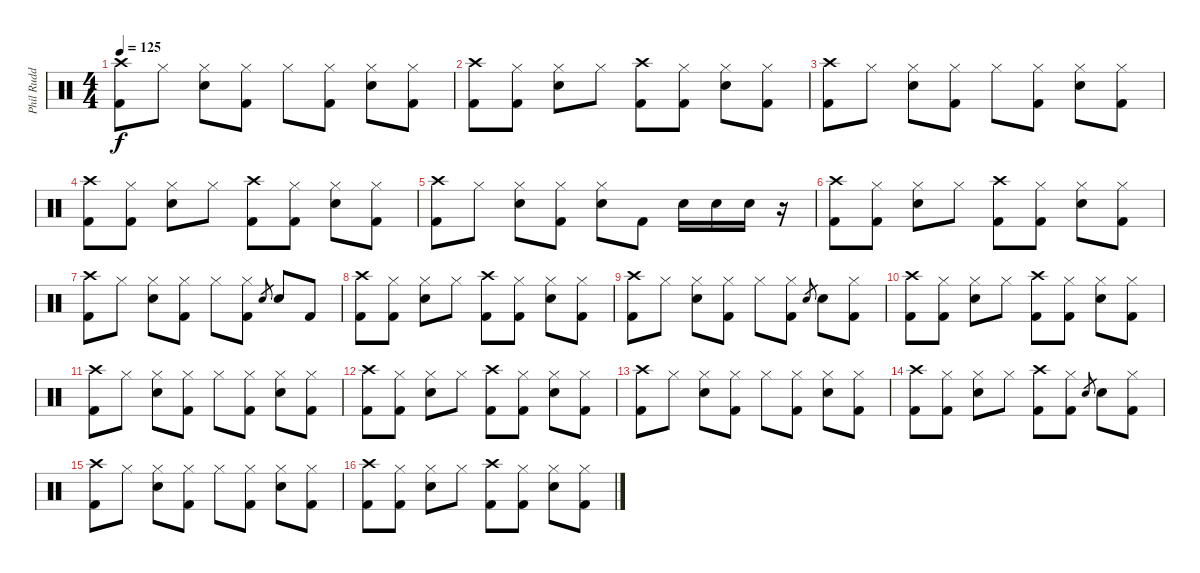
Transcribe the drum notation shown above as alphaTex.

\track ("Phil Rudd" "Phil Rudd") {instrument percussion}
\staff {score}
\articulation defaults
\ts (4 4)
\tempo 125
\clef neutral
\ks c
("Crash high (hit)" "Kick (hit) 2").8{dy f} "Hi-Hat (closed)".8 ("Hi-Hat (closed)" "Snare (hit) 2").8 ("Hi-Hat (closed)" "Kick (hit) 2").8 "Hi-Hat (closed)".8 ("Hi-Hat (closed)" "Kick (hit) 2").8 ("Hi-Hat (closed)" "Snare (hit) 2").8 ("Hi-Hat (closed)" "Kick (hit) 2").8 |
("Crash high (hit)" "Kick (hit) 2").8 ("Hi-Hat (closed)" "Kick (hit) 2").8 ("Hi-Hat (closed)" "Snare (hit) 2").8 "Hi-Hat (closed)".8 ("Crash high (hit)" "Kick (hit) 2").8 ("Hi-Hat (closed)" "Kick (hit) 2").8 ("Hi-Hat (closed)" "Snare (hit) 2").8 ("Hi-Hat (closed)" "Kick (hit) 2").8 |
("Crash high (hit)" "Kick (hit) 2").8 "Hi-Hat (closed)".8 ("Hi-Hat (closed)" "Snare (hit) 2").8 ("Hi-Hat (closed)" "Kick (hit) 2").8 "Hi-Hat (closed)".8 ("Hi-Hat (closed)" "Kick (hit) 2").8 ("Hi-Hat (closed)" "Snare (hit) 2").8 ("Hi-Hat (closed)" "Kick (hit) 2").8 |
("Crash high (hit)" "Kick (hit) 2").8 ("Hi-Hat (closed)" "Kick (hit) 2").8 ("Hi-Hat (closed)" "Snare (hit) 2").8 "Hi-Hat (closed)".8 ("Crash high (hit)" "Kick (hit) 2").8 ("Hi-Hat (closed)" "Kick (hit) 2").8 ("Hi-Hat (closed)" "Snare (hit) 2").8 ("Hi-Hat (closed)" "Kick (hit) 2").8 |
("Crash high (hit)" "Kick (hit) 2").8 "Hi-Hat (closed)".8 ("Hi-Hat (closed)" "Snare (hit) 2").8 ("Hi-Hat (closed)" "Kick (hit) 2").8 ("Hi-Hat (closed)" "Snare (hit) 2").8 "Kick (hit) 2".8 "Snare (hit) 2".16 "Snare (hit) 2".16 "Snare (hit) 2".16 r.16 |
("Crash high (hit)" "Kick (hit) 2").8 ("Hi-Hat (closed)" "Kick (hit) 2").8 ("Hi-Hat (closed)" "Snare (hit) 2").8 "Hi-Hat (closed)".8 ("Crash high (hit)" "Kick (hit) 2").8 ("Hi-Hat (closed)" "Kick (hit) 2").8 ("Hi-Hat (closed)" "Snare (hit) 2").8 ("Hi-Hat (closed)" "Kick (hit) 2").8 |
("Crash high (hit)" "Kick (hit) 2").8 "Hi-Hat (closed)".8 ("Hi-Hat (closed)" "Snare (hit) 2").8 ("Hi-Hat (closed)" "Kick (hit) 2").8 "Hi-Hat (closed)".8 ("Hi-Hat (closed)" "Kick (hit) 2").8 "Snare (hit) 2".8{gr} "Snare (hit) 2".8 "Kick (hit) 2".8 |
("Crash high (hit)" "Kick (hit) 2").8 ("Hi-Hat (closed)" "Kick (hit) 2").8 ("Hi-Hat (closed)" "Snare (hit) 2").8 "Hi-Hat (closed)".8 ("Crash high (hit)" "Kick (hit) 2").8 ("Hi-Hat (closed)" "Kick (hit) 2").8 ("Hi-Hat (closed)" "Snare (hit) 2").8 ("Hi-Hat (closed)" "Kick (hit) 2").8 |
("Crash high (hit)" "Kick (hit) 2").8 "Hi-Hat (closed)".8 ("Hi-Hat (closed)" "Snare (hit) 2").8 ("Hi-Hat (closed)" "Kick (hit) 2").8 "Hi-Hat (closed)".8 ("Hi-Hat (closed)" "Kick (hit) 2").8 "Snare (hit) 2".8{gr} "Snare (hit) 2".8 ("Hi-Hat (closed)" "Kick (hit) 2").8 |
("Crash high (hit)" "Kick (hit) 2").8 ("Hi-Hat (closed)" "Kick (hit) 2").8 ("Hi-Hat (closed)" "Snare (hit) 2").8 "Hi-Hat (closed)".8 ("Crash high (hit)" "Kick (hit) 2").8 ("Hi-Hat (closed)" "Kick (hit) 2").8 ("Hi-Hat (closed)" "Snare (hit) 2").8 ("Hi-Hat (closed)" "Kick (hit) 2").8 |
("Crash high (hit)" "Kick (hit) 2").8 "Hi-Hat (closed)".8 ("Hi-Hat (closed)" "Snare (hit) 2").8 ("Hi-Hat (closed)" "Kick (hit) 2").8 "Hi-Hat (closed)".8 ("Hi-Hat (closed)" "Kick (hit) 2").8 ("Hi-Hat (closed)" "Snare (hit) 2").8 ("Hi-Hat (closed)" "Kick (hit) 2").8 |
("Crash high (hit)" "Kick (hit) 2").8 ("Hi-Hat (closed)" "Kick (hit) 2").8 ("Hi-Hat (closed)" "Snare (hit) 2").8 "Hi-Hat (closed)".8 ("Crash high (hit)" "Kick (hit) 2").8 ("Hi-Hat (closed)" "Kick (hit) 2").8 ("Hi-Hat (closed)" "Snare (hit) 2").8 ("Hi-Hat (closed)" "Kick (hit) 2").8 |
("Crash high (hit)" "Kick (hit) 2").8 "Hi-Hat (closed)".8 ("Hi-Hat (closed)" "Snare (hit) 2").8 ("Hi-Hat (closed)" "Kick (hit) 2").8 "Hi-Hat (closed)".8 ("Hi-Hat (closed)" "Kick (hit) 2").8 ("Hi-Hat (closed)" "Snare (hit) 2").8 ("Hi-Hat (closed)" "Kick (hit) 2").8 |
("Crash high (hit)" "Kick (hit) 2").8 ("Hi-Hat (closed)" "Kick (hit) 2").8 ("Hi-Hat (closed)" "Snare (hit) 2").8 "Hi-Hat (closed)".8 ("Crash high (hit)" "Kick (hit) 2").8 ("Hi-Hat (closed)" "Kick (hit) 2").8 "Snare (hit) 2".8{gr} "Snare (hit) 2".8 ("Hi-Hat (closed)" "Kick (hit) 2").8 |
("Crash high (hit)" "Kick (hit) 2").8 "Hi-Hat (closed)".8 ("Hi-Hat (closed)" "Snare (hit) 2").8 ("Hi-Hat (closed)" "Kick (hit) 2").8 "Hi-Hat (closed)".8 ("Hi-Hat (closed)" "Kick (hit) 2").8 ("Hi-Hat (closed)" "Snare (hit) 2").8 ("Hi-Hat (closed)" "Kick (hit) 2").8 |
("Crash high (hit)" "Kick (hit) 2").8 ("Hi-Hat (closed)" "Kick (hit) 2").8 ("Hi-Hat (closed)" "Snare (hit) 2").8 "Hi-Hat (closed)".8 ("Crash high (hit)" "Kick (hit) 2").8 ("Hi-Hat (closed)" "Kick (hit) 2").8 ("Hi-Hat (closed)" "Snare (hit) 2").8 ("Hi-Hat (closed)" "Kick (hit) 2").8
